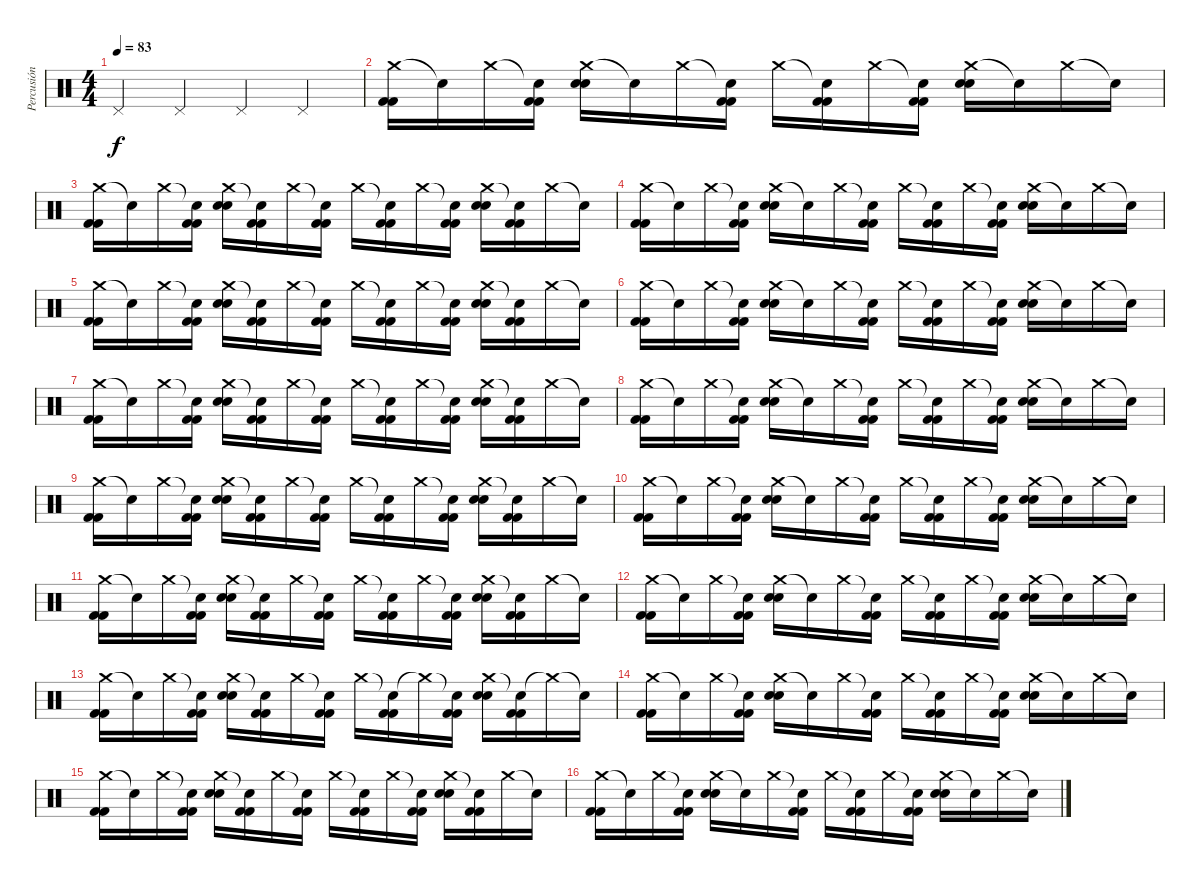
\track ("Percusión" "Percusión") {instrument percussion}
\staff {score}
\articulation defaults
\ts (4 4)
\tempo 83
\clef neutral
\ks c "Pedal Hi-Hat (hit)".4{dy f} "Pedal Hi-Hat (hit)".4 "Pedal Hi-Hat (hit)".4 "Pedal Hi-Hat (hit)".4
|
("Crash medium (hit)" "Kick (hit) 2" "Kick (hit) 2").16 "Snare (hit)"{t}.16 "Crash medium (hit)".16 ("Snare (hit)"{t} "Kick (hit) 2" "Kick (hit) 2").16 ("Crash medium (hit)" "Electric Snare (hit)" "Electric Snare (hit)").16 "Snare (hit)"{t}.16 "Crash medium (hit)".16 ("Snare (hit)"{t} "Kick (hit) 2" "Kick (hit) 2").16 "Crash medium (hit)".16 ("Snare (hit)"{t} "Kick (hit) 2" "Kick (hit) 2").16 "Crash medium (hit)".16 ("Snare (hit)"{t} "Kick (hit) 2" "Kick (hit) 2").16 ("Crash medium (hit)" "Electric Snare (hit)" "Electric Snare (hit)").16 "Snare (hit)"{t}.16 "Crash medium (hit)".16 "Snare (hit)"{t}.16 |
("Crash medium (hit)" "Kick (hit) 2" "Kick (hit) 2").16 "Snare (hit)"{t}.16 "Crash medium (hit)".16 ("Snare (hit)"{t} "Kick (hit) 2" "Kick (hit) 2").16 ("Crash medium (hit)" "Electric Snare (hit)" "Electric Snare (hit)").16 ("Snare (hit)"{t} "Kick (hit) 2" "Kick (hit) 2").16 "Crash medium (hit)".16 ("Snare (hit)"{t} "Kick (hit) 2" "Kick (hit) 2").16 "Crash medium (hit)".16 ("Snare (hit)"{t} "Kick (hit) 2" "Kick (hit) 2").16 "Crash medium (hit)".16 ("Snare (hit)"{t} "Kick (hit) 2" "Kick (hit) 2").16 ("Crash medium (hit)" "Electric Snare (hit)" "Electric Snare (hit)").16 ("Snare (hit)"{t} "Kick (hit) 2" "Kick (hit) 2").16 "Crash medium (hit)".16 "Snare (hit)"{t}.16 |
("Crash medium (hit)" "Kick (hit) 2" "Kick (hit) 2").16 "Snare (hit)"{t}.16 "Crash medium (hit)".16 ("Snare (hit)"{t} "Kick (hit) 2" "Kick (hit) 2").16 ("Crash medium (hit)" "Electric Snare (hit)" "Electric Snare (hit)").16 "Snare (hit)"{t}.16 "Crash medium (hit)".16 ("Snare (hit)"{t} "Kick (hit) 2" "Kick (hit) 2").16 "Crash medium (hit)".16 ("Snare (hit)"{t} "Kick (hit) 2" "Kick (hit) 2").16 "Crash medium (hit)".16 ("Snare (hit)"{t} "Kick (hit) 2" "Kick (hit) 2").16 ("Crash medium (hit)" "Electric Snare (hit)" "Electric Snare (hit)").16 "Snare (hit)"{t}.16 "Crash medium (hit)".16 "Snare (hit)"{t}.16 |
("Crash medium (hit)" "Kick (hit) 2" "Kick (hit) 2").16 "Snare (hit)"{t}.16 "Crash medium (hit)".16 ("Snare (hit)"{t} "Kick (hit) 2" "Kick (hit) 2").16 ("Crash medium (hit)" "Electric Snare (hit)" "Electric Snare (hit)").16 ("Snare (hit)"{t} "Kick (hit) 2" "Kick (hit) 2").16 "Crash medium (hit)".16 ("Snare (hit)"{t} "Kick (hit) 2" "Kick (hit) 2").16 "Crash medium (hit)".16 ("Snare (hit)"{t} "Kick (hit) 2" "Kick (hit) 2").16 "Crash medium (hit)".16 ("Snare (hit)"{t} "Kick (hit) 2" "Kick (hit) 2").16 ("Crash medium (hit)" "Electric Snare (hit)" "Electric Snare (hit)").16 ("Snare (hit)"{t} "Kick (hit) 2" "Kick (hit) 2").16 "Crash medium (hit)".16 "Snare (hit)"{t}.16 |
("Crash medium (hit)" "Kick (hit) 2" "Kick (hit) 2").16 "Snare (hit)"{t}.16 "Crash medium (hit)".16 ("Snare (hit)"{t} "Kick (hit) 2" "Kick (hit) 2").16 ("Crash medium (hit)" "Electric Snare (hit)" "Electric Snare (hit)").16 "Snare (hit)"{t}.16 "Crash medium (hit)".16 ("Snare (hit)"{t} "Kick (hit) 2" "Kick (hit) 2").16 "Crash medium (hit)".16 ("Snare (hit)"{t} "Kick (hit) 2" "Kick (hit) 2").16 "Crash medium (hit)".16 ("Snare (hit)"{t} "Kick (hit) 2" "Kick (hit) 2").16 ("Crash medium (hit)" "Electric Snare (hit)" "Electric Snare (hit)").16 "Snare (hit)"{t}.16 "Crash medium (hit)".16 "Snare (hit)"{t}.16 |
("Crash medium (hit)" "Kick (hit) 2" "Kick (hit) 2").16 "Snare (hit)"{t}.16 "Crash medium (hit)".16 ("Snare (hit)"{t} "Kick (hit) 2" "Kick (hit) 2").16 ("Crash medium (hit)" "Electric Snare (hit)" "Electric Snare (hit)").16 ("Snare (hit)"{t} "Kick (hit) 2" "Kick (hit) 2").16 "Crash medium (hit)".16 ("Snare (hit)"{t} "Kick (hit) 2" "Kick (hit) 2").16 "Crash medium (hit)".16 ("Snare (hit)"{t} "Kick (hit) 2" "Kick (hit) 2").16 "Crash medium (hit)".16 ("Snare (hit)"{t} "Kick (hit) 2" "Kick (hit) 2").16 ("Crash medium (hit)" "Electric Snare (hit)" "Electric Snare (hit)").16 ("Snare (hit)"{t} "Kick (hit) 2" "Kick (hit) 2").16 "Crash medium (hit)".16 "Snare (hit)"{t}.16 |
("Crash medium (hit)" "Kick (hit) 2" "Kick (hit) 2").16 "Snare (hit)"{t}.16 "Crash medium (hit)".16 ("Snare (hit)"{t} "Kick (hit) 2" "Kick (hit) 2").16 ("Crash medium (hit)" "Electric Snare (hit)" "Electric Snare (hit)").16 "Snare (hit)"{t}.16 "Crash medium (hit)".16 ("Snare (hit)"{t} "Kick (hit) 2" "Kick (hit) 2").16 "Crash medium (hit)".16 ("Snare (hit)"{t} "Kick (hit) 2" "Kick (hit) 2").16 "Crash medium (hit)".16 ("Snare (hit)"{t} "Kick (hit) 2" "Kick (hit) 2").16 ("Crash medium (hit)" "Electric Snare (hit)" "Electric Snare (hit)").16 "Snare (hit)"{t}.16 "Crash medium (hit)".16 "Snare (hit)"{t}.16 |
("Crash medium (hit)" "Kick (hit) 2" "Kick (hit) 2").16 "Snare (hit)"{t}.16 "Crash medium (hit)".16 ("Snare (hit)"{t} "Kick (hit) 2" "Kick (hit) 2").16 ("Crash medium (hit)" "Electric Snare (hit)" "Electric Snare (hit)").16 ("Snare (hit)"{t} "Kick (hit) 2" "Kick (hit) 2").16 "Crash medium (hit)".16 ("Snare (hit)"{t} "Kick (hit) 2" "Kick (hit) 2").16 "Crash medium (hit)".16 ("Snare (hit)"{t} "Kick (hit) 2" "Kick (hit) 2").16 "Crash medium (hit)".16 ("Snare (hit)"{t} "Kick (hit) 2" "Kick (hit) 2").16 ("Crash medium (hit)" "Electric Snare (hit)" "Electric Snare (hit)").16 ("Snare (hit)"{t} "Kick (hit) 2" "Kick (hit) 2").16 "Crash medium (hit)".16 "Snare (hit)"{t}.16 |
("Crash medium (hit)" "Kick (hit) 2" "Kick (hit) 2").16 "Snare (hit)"{t}.16 "Crash medium (hit)".16 ("Snare (hit)"{t} "Kick (hit) 2" "Kick (hit) 2").16 ("Crash medium (hit)" "Electric Snare (hit)" "Electric Snare (hit)").16 "Snare (hit)"{t}.16 "Crash medium (hit)".16 ("Snare (hit)"{t} "Kick (hit) 2" "Kick (hit) 2").16 "Crash medium (hit)".16 ("Snare (hit)"{t} "Kick (hit) 2" "Kick (hit) 2").16 "Crash medium (hit)".16 ("Snare (hit)"{t} "Kick (hit) 2" "Kick (hit) 2").16 ("Crash medium (hit)" "Electric Snare (hit)" "Electric Snare (hit)").16 "Snare (hit)"{t}.16 "Crash medium (hit)".16 "Snare (hit)"{t}.16 |
("Crash medium (hit)" "Kick (hit) 2" "Kick (hit) 2").16 "Snare (hit)"{t}.16 "Crash medium (hit)".16 ("Snare (hit)"{t} "Kick (hit) 2" "Kick (hit) 2").16 ("Crash medium (hit)" "Electric Snare (hit)" "Electric Snare (hit)").16 ("Snare (hit)"{t} "Kick (hit) 2" "Kick (hit) 2").16 "Crash medium (hit)".16 ("Snare (hit)"{t} "Kick (hit) 2" "Kick (hit) 2").16 "Crash medium (hit)".16 ("Snare (hit)"{t} "Kick (hit) 2" "Kick (hit) 2").16 "Crash medium (hit)".16 ("Snare (hit)"{t} "Kick (hit) 2" "Kick (hit) 2").16 ("Crash medium (hit)" "Electric Snare (hit)" "Electric Snare (hit)").16 ("Snare (hit)"{t} "Kick (hit) 2" "Kick (hit) 2").16 "Crash medium (hit)".16 "Snare (hit)"{t}.16 |
("Crash medium (hit)" "Kick (hit) 2" "Kick (hit) 2").16 "Snare (hit)"{t}.16 "Crash medium (hit)".16 ("Snare (hit)"{t} "Kick (hit) 2" "Kick (hit) 2").16 ("Crash medium (hit)" "Electric Snare (hit)" "Electric Snare (hit)").16 "Snare (hit)"{t}.16 "Crash medium (hit)".16 ("Snare (hit)"{t} "Kick (hit) 2" "Kick (hit) 2").16 "Crash medium (hit)".16 ("Snare (hit)"{t} "Kick (hit) 2" "Kick (hit) 2").16 "Crash medium (hit)".16 ("Snare (hit)"{t} "Kick (hit) 2" "Kick (hit) 2").16 ("Crash medium (hit)" "Electric Snare (hit)" "Electric Snare (hit)").16 "Snare (hit)"{t}.16 "Crash medium (hit)".16 "Snare (hit)"{t}.16 |
("Crash medium (hit)" "Kick (hit) 2" "Kick (hit) 2").16 "Snare (hit)"{t}.16 "Crash medium (hit)".16 ("Snare (hit)"{t} "Kick (hit) 2" "Kick (hit) 2").16 ("Crash medium (hit)" "Electric Snare (hit)" "Electric Snare (hit)").16 ("Snare (hit)"{t} "Kick (hit) 2" "Kick (hit) 2").16 "Crash medium (hit)".16 ("Snare (hit)"{t} "Kick (hit) 2" "Kick (hit) 2").16 "Crash medium (hit)".16 ("Snare (hit)"{t} "Kick (hit) 2" "Kick (hit) 2").16 "Crash medium (hit)"{t}.16 ("Snare (hit)"{t} "Kick (hit) 2" "Kick (hit) 2").16 ("Crash medium (hit)" "Electric Snare (hit)" "Electric Snare (hit)").16 ("Snare (hit)"{t} "Kick (hit) 2" "Kick (hit) 2").16 "Crash medium (hit)"{t}.16 "Snare (hit)"{t}.16 |
("Crash medium (hit)" "Kick (hit) 2" "Kick (hit) 2").16 "Snare (hit)"{t}.16 "Crash medium (hit)".16 ("Snare (hit)"{t} "Kick (hit) 2" "Kick (hit) 2").16 ("Crash medium (hit)" "Electric Snare (hit)" "Electric Snare (hit)").16 "Snare (hit)"{t}.16 "Crash medium (hit)".16 ("Snare (hit)"{t} "Kick (hit) 2" "Kick (hit) 2").16 "Crash medium (hit)".16 ("Snare (hit)"{t} "Kick (hit) 2" "Kick (hit) 2").16 "Crash medium (hit)".16 ("Snare (hit)"{t} "Kick (hit) 2" "Kick (hit) 2").16 ("Crash medium (hit)" "Electric Snare (hit)" "Electric Snare (hit)").16 "Snare (hit)"{t}.16 "Crash medium (hit)".16 "Snare (hit)"{t}.16 |
("Crash medium (hit)" "Kick (hit) 2" "Kick (hit) 2").16 "Snare (hit)"{t}.16 "Crash medium (hit)".16 ("Snare (hit)"{t} "Kick (hit) 2" "Kick (hit) 2").16 ("Crash medium (hit)" "Electric Snare (hit)" "Electric Snare (hit)").16 ("Snare (hit)"{t} "Kick (hit) 2" "Kick (hit) 2").16 "Crash medium (hit)".16 ("Snare (hit)"{t} "Kick (hit) 2" "Kick (hit) 2").16 "Crash medium (hit)".16 ("Snare (hit)"{t} "Kick (hit) 2" "Kick (hit) 2").16 "Crash medium (hit)".16 ("Snare (hit)"{t} "Kick (hit) 2" "Kick (hit) 2").16 ("Crash medium (hit)" "Electric Snare (hit)" "Electric Snare (hit)").16 ("Snare (hit)"{t} "Kick (hit) 2" "Kick (hit) 2").16 "Crash medium (hit)".16 "Snare (hit)"{t}.16 |
("Crash medium (hit)" "Kick (hit) 2" "Kick (hit) 2").16 "Snare (hit)"{t}.16 "Crash medium (hit)".16 ("Snare (hit)"{t} "Kick (hit) 2" "Kick (hit) 2").16 ("Crash medium (hit)" "Electric Snare (hit)" "Electric Snare (hit)").16 "Snare (hit)"{t}.16 "Crash medium (hit)".16 ("Snare (hit)"{t} "Kick (hit) 2" "Kick (hit) 2").16 "Crash medium (hit)".16 ("Snare (hit)"{t} "Kick (hit) 2" "Kick (hit) 2").16 "Crash medium (hit)".16 ("Snare (hit)"{t} "Kick (hit) 2" "Kick (hit) 2").16 ("Crash medium (hit)" "Electric Snare (hit)" "Electric Snare (hit)").16 "Snare (hit)"{t}.16 "Crash medium (hit)".16 "Snare (hit)"{t}.16
